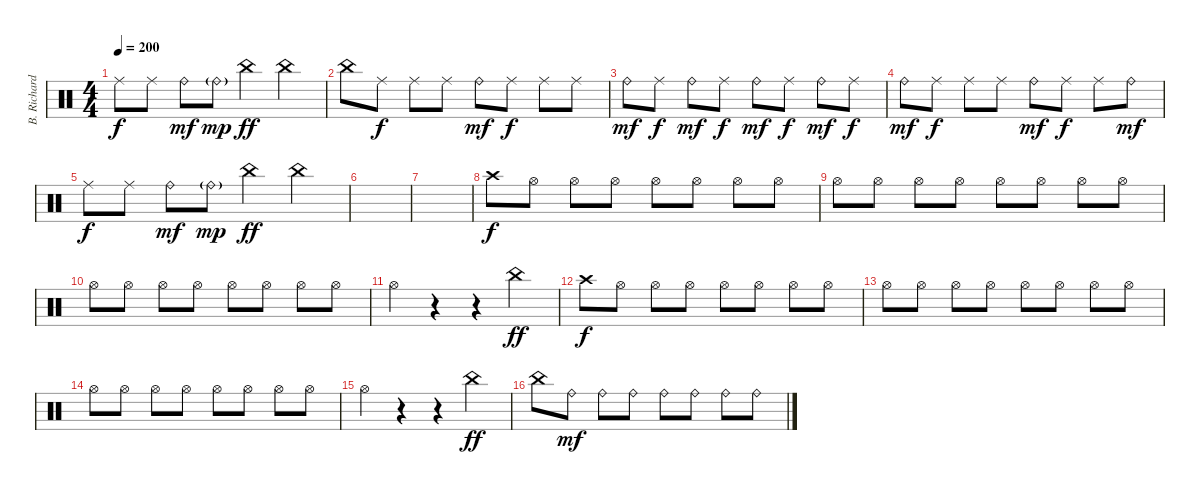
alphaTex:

\track ("B. Richardson Drums" "B. Richard") {instrument percussion}
\staff {score}
\articulation defaults
\ts (4 4)
\tempo 200
\clef neutral
\ks c "Ride (middle)".8{dy f} "Ride (middle)".8 "Ride (bell)".8{dy mf} "Ride (bell)"{g}.8{dy mp} "China (hit)".4{dy ff} "China (hit)".4
|
"China (hit)".8 "Ride (middle)".8{dy f} "Ride (middle)".8 "Ride (middle)".8 "Ride (bell)".8{dy mf} "Ride (middle)".8{dy f} "Ride (middle)".8 "Ride (middle)".8 |
"Ride (bell)".8{dy mf} "Ride (middle)".8{dy f} "Ride (bell)".8{dy mf} "Ride (middle)".8{dy f} "Ride (bell)".8{dy mf} "Ride (middle)".8{dy f} "Ride (bell)".8{dy mf} "Ride (middle)".8{dy f} |
"Ride (bell)".8{dy mf} "Ride (middle)".8{dy f} "Ride (middle)".8 "Ride (middle)".8 "Ride (bell)".8{dy mf} "Ride (middle)".8{dy f} "Ride (middle)".8 "Ride (bell)".8{dy mf} |
"Ride (middle)".8{dy f} "Ride (middle)".8 "Ride (bell)".8{dy mf} "Ride (bell)"{g}.8{dy mp} "China (hit)".4{dy ff} "China (hit)".4 |
|
|
"Crash high (hit)".8{dy f} "Hi-Hat (open)".8 "Hi-Hat (open)".8 "Hi-Hat (open)".8 "Hi-Hat (open)".8 "Hi-Hat (open)".8 "Hi-Hat (open)".8 "Hi-Hat (open)".8 |
"Hi-Hat (open)".8 "Hi-Hat (open)".8 "Hi-Hat (open)".8 "Hi-Hat (open)".8 "Hi-Hat (open)".8 "Hi-Hat (open)".8 "Hi-Hat (open)".8 "Hi-Hat (open)".8 |
"Hi-Hat (open)".8 "Hi-Hat (open)".8 "Hi-Hat (open)".8 "Hi-Hat (open)".8 "Hi-Hat (open)".8 "Hi-Hat (open)".8 "Hi-Hat (open)".8 "Hi-Hat (open)".8 |
"Hi-Hat (open)".4 r.4 r.4 "China (hit)".4{dy ff} |
"Crash high (hit)".8{dy f} "Hi-Hat (open)".8 "Hi-Hat (open)".8 "Hi-Hat (open)".8 "Hi-Hat (open)".8 "Hi-Hat (open)".8 "Hi-Hat (open)".8 "Hi-Hat (open)".8 |
"Hi-Hat (open)".8 "Hi-Hat (open)".8 "Hi-Hat (open)".8 "Hi-Hat (open)".8 "Hi-Hat (open)".8 "Hi-Hat (open)".8 "Hi-Hat (open)".8 "Hi-Hat (open)".8 |
"Hi-Hat (open)".8 "Hi-Hat (open)".8 "Hi-Hat (open)".8 "Hi-Hat (open)".8 "Hi-Hat (open)".8 "Hi-Hat (open)".8 "Hi-Hat (open)".8 "Hi-Hat (open)".8 |
"Hi-Hat (open)".4 r.4 r.4 "China (hit)".4{dy ff} |
"China (hit)".8 "Ride (bell)".8{dy mf} "Ride (bell)".8 "Ride (bell)".8 "Ride (bell)".8 "Ride (bell)".8 "Ride (bell)".8 "Ride (bell)".8
